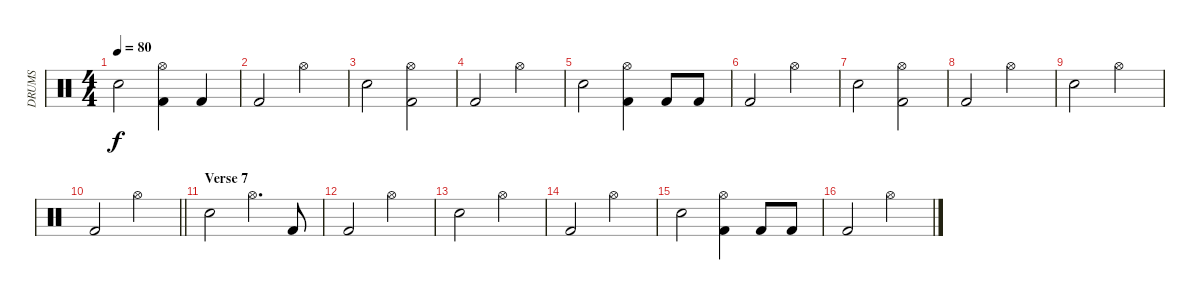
\track ("DRUMS" "DRUMS") {instrument percussion}
\staff {score}
\articulation defaults
\ts (4 4)
\tempo 80
\clef neutral
\ks c "Snare (hit) 2".2{dy f}
("Hi-Hat (open)" "Kick (hit) 2").4 "Kick (hit) 2".4 |
"Kick (hit) 2".2 "Hi-Hat (open)".2 |
"Snare (hit) 2".2 ("Hi-Hat (open)" "Kick (hit) 2").2 |
"Kick (hit) 2".2 "Hi-Hat (open)".2 |
"Snare (hit) 2".2 ("Hi-Hat (open)" "Kick (hit) 2").4 "Kick (hit) 2".8 "Kick (hit) 2".8 |
"Kick (hit) 2".2 "Hi-Hat (open)".2 |
"Snare (hit) 2".2 ("Hi-Hat (open)" "Kick (hit) 2").2 |
"Kick (hit) 2".2 "Hi-Hat (open)".2 |
"Snare (hit) 2".2 "Hi-Hat (open)".2 |
\barLineRight lightlight "Kick (hit) 2".2 "Hi-Hat (open)".2
|
\section ("" "Verse 7")
"Snare (hit) 2".2 "Hi-Hat (open)".4{d} "Kick (hit) 2".8 |
"Kick (hit) 2".2 "Hi-Hat (open)".2 |
"Snare (hit) 2".2 "Hi-Hat (open)".2 |
"Kick (hit) 2".2 "Hi-Hat (open)".2 |
"Snare (hit) 2".2 ("Hi-Hat (open)" "Kick (hit) 2").4 "Kick (hit) 2".8 "Kick (hit) 2".8 |
"Kick (hit) 2".2 "Hi-Hat (open)".2
